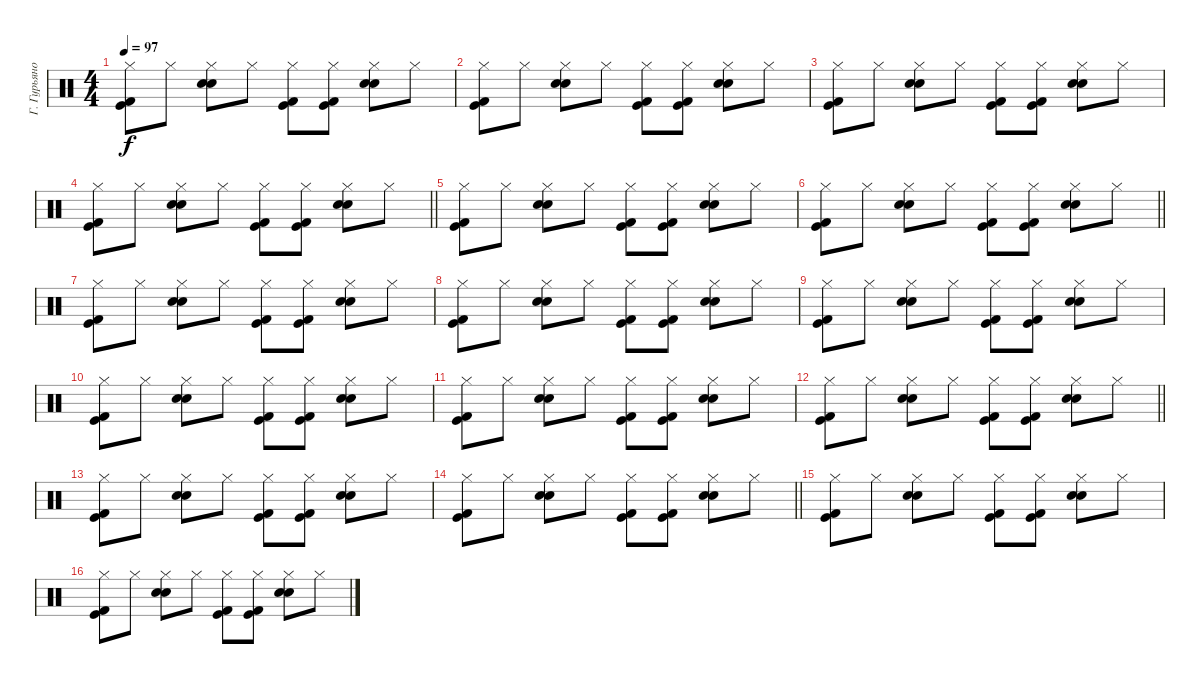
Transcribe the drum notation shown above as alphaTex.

\track ("Г. Гурьянов" "Г. Гурьяно") {instrument percussion}
\staff {score}
\articulation defaults
\ts (4 4)
\tempo 97
\clef neutral
\ks c
("Kick (hit) 2" "Kick (hit)" "Hi-Hat (closed)").8{dy f} "Hi-Hat (closed)".8 ("Electric Snare (hit)" "Snare (hit) 2" "Hi-Hat (closed)").8 "Hi-Hat (closed)".8 ("Kick (hit) 2" "Kick (hit)" "Hi-Hat (closed)").8 ("Kick (hit) 2" "Kick (hit)" "Hi-Hat (closed)").8 ("Electric Snare (hit)" "Snare (hit) 2" "Hi-Hat (closed)").8 "Hi-Hat (closed)".8 |
("Kick (hit) 2" "Kick (hit)" "Hi-Hat (closed)").8 "Hi-Hat (closed)".8 ("Electric Snare (hit)" "Snare (hit) 2" "Hi-Hat (closed)").8 "Hi-Hat (closed)".8 ("Kick (hit) 2" "Kick (hit)" "Hi-Hat (closed)").8 ("Kick (hit) 2" "Kick (hit)" "Hi-Hat (closed)").8 ("Electric Snare (hit)" "Snare (hit) 2" "Hi-Hat (closed)").8 "Hi-Hat (closed)".8 |
("Kick (hit) 2" "Kick (hit)" "Hi-Hat (closed)").8 "Hi-Hat (closed)".8 ("Electric Snare (hit)" "Snare (hit) 2" "Hi-Hat (closed)").8 "Hi-Hat (closed)".8 ("Kick (hit) 2" "Kick (hit)" "Hi-Hat (closed)").8 ("Kick (hit) 2" "Kick (hit)" "Hi-Hat (closed)").8 ("Electric Snare (hit)" "Snare (hit) 2" "Hi-Hat (closed)").8 "Hi-Hat (closed)".8 |
\barLineRight lightlight
("Kick (hit) 2" "Kick (hit)" "Hi-Hat (closed)").8 "Hi-Hat (closed)".8 ("Electric Snare (hit)" "Snare (hit) 2" "Hi-Hat (closed)").8 "Hi-Hat (closed)".8 ("Kick (hit) 2" "Kick (hit)" "Hi-Hat (closed)").8 ("Kick (hit) 2" "Kick (hit)" "Hi-Hat (closed)").8 ("Electric Snare (hit)" "Snare (hit) 2" "Hi-Hat (closed)").8 "Hi-Hat (closed)".8 |
("Kick (hit) 2" "Kick (hit)" "Hi-Hat (closed)").8 "Hi-Hat (closed)".8 ("Electric Snare (hit)" "Snare (hit) 2" "Hi-Hat (closed)").8 "Hi-Hat (closed)".8 ("Kick (hit) 2" "Kick (hit)" "Hi-Hat (closed)").8 ("Kick (hit) 2" "Kick (hit)" "Hi-Hat (closed)").8 ("Electric Snare (hit)" "Snare (hit) 2" "Hi-Hat (closed)").8 "Hi-Hat (closed)".8 |
\barLineRight lightlight
("Kick (hit) 2" "Kick (hit)" "Hi-Hat (closed)").8 "Hi-Hat (closed)".8 ("Electric Snare (hit)" "Snare (hit) 2" "Hi-Hat (closed)").8 "Hi-Hat (closed)".8 ("Kick (hit) 2" "Kick (hit)" "Hi-Hat (closed)").8 ("Kick (hit) 2" "Kick (hit)" "Hi-Hat (closed)").8 ("Electric Snare (hit)" "Snare (hit) 2" "Hi-Hat (closed)").8 "Hi-Hat (closed)".8 |
("Kick (hit) 2" "Kick (hit)" "Hi-Hat (closed)").8 "Hi-Hat (closed)".8 ("Electric Snare (hit)" "Snare (hit) 2" "Hi-Hat (closed)").8 "Hi-Hat (closed)".8 ("Kick (hit) 2" "Kick (hit)" "Hi-Hat (closed)").8 ("Kick (hit) 2" "Kick (hit)" "Hi-Hat (closed)").8 ("Electric Snare (hit)" "Snare (hit) 2" "Hi-Hat (closed)").8 "Hi-Hat (closed)".8 |
("Kick (hit) 2" "Kick (hit)" "Hi-Hat (closed)").8 "Hi-Hat (closed)".8 ("Electric Snare (hit)" "Snare (hit) 2" "Hi-Hat (closed)").8 "Hi-Hat (closed)".8 ("Kick (hit) 2" "Kick (hit)" "Hi-Hat (closed)").8 ("Kick (hit) 2" "Kick (hit)" "Hi-Hat (closed)").8 ("Electric Snare (hit)" "Snare (hit) 2" "Hi-Hat (closed)").8 "Hi-Hat (closed)".8 |
("Kick (hit) 2" "Kick (hit)" "Hi-Hat (closed)").8 "Hi-Hat (closed)".8 ("Electric Snare (hit)" "Snare (hit) 2" "Hi-Hat (closed)").8 "Hi-Hat (closed)".8 ("Kick (hit) 2" "Kick (hit)" "Hi-Hat (closed)").8 ("Kick (hit) 2" "Kick (hit)" "Hi-Hat (closed)").8 ("Electric Snare (hit)" "Snare (hit) 2" "Hi-Hat (closed)").8 "Hi-Hat (closed)".8 |
("Kick (hit) 2" "Kick (hit)" "Hi-Hat (closed)").8 "Hi-Hat (closed)".8 ("Electric Snare (hit)" "Snare (hit) 2" "Hi-Hat (closed)").8 "Hi-Hat (closed)".8 ("Kick (hit) 2" "Kick (hit)" "Hi-Hat (closed)").8 ("Kick (hit) 2" "Kick (hit)" "Hi-Hat (closed)").8 ("Electric Snare (hit)" "Snare (hit) 2" "Hi-Hat (closed)").8 "Hi-Hat (closed)".8 |
("Kick (hit) 2" "Kick (hit)" "Hi-Hat (closed)").8 "Hi-Hat (closed)".8 ("Electric Snare (hit)" "Snare (hit) 2" "Hi-Hat (closed)").8 "Hi-Hat (closed)".8 ("Kick (hit) 2" "Kick (hit)" "Hi-Hat (closed)").8 ("Kick (hit) 2" "Kick (hit)" "Hi-Hat (closed)").8 ("Electric Snare (hit)" "Snare (hit) 2" "Hi-Hat (closed)").8 "Hi-Hat (closed)".8 |
\barLineRight lightlight
("Kick (hit) 2" "Kick (hit)" "Hi-Hat (closed)").8 "Hi-Hat (closed)".8 ("Electric Snare (hit)" "Snare (hit) 2" "Hi-Hat (closed)").8 "Hi-Hat (closed)".8 ("Kick (hit) 2" "Kick (hit)" "Hi-Hat (closed)").8 ("Kick (hit) 2" "Kick (hit)" "Hi-Hat (closed)").8 ("Electric Snare (hit)" "Snare (hit) 2" "Hi-Hat (closed)").8 "Hi-Hat (closed)".8 |
("Kick (hit) 2" "Kick (hit)" "Hi-Hat (closed)").8 "Hi-Hat (closed)".8 ("Electric Snare (hit)" "Snare (hit) 2" "Hi-Hat (closed)").8 "Hi-Hat (closed)".8 ("Kick (hit) 2" "Kick (hit)" "Hi-Hat (closed)").8 ("Kick (hit) 2" "Kick (hit)" "Hi-Hat (closed)").8 ("Electric Snare (hit)" "Snare (hit) 2" "Hi-Hat (closed)").8 "Hi-Hat (closed)".8 |
\barLineRight lightlight
("Kick (hit) 2" "Kick (hit)" "Hi-Hat (closed)").8 "Hi-Hat (closed)".8 ("Electric Snare (hit)" "Snare (hit) 2" "Hi-Hat (closed)").8 "Hi-Hat (closed)".8 ("Kick (hit) 2" "Kick (hit)" "Hi-Hat (closed)").8 ("Kick (hit) 2" "Kick (hit)" "Hi-Hat (closed)").8 ("Electric Snare (hit)" "Snare (hit) 2" "Hi-Hat (closed)").8 "Hi-Hat (closed)".8 |
("Kick (hit) 2" "Kick (hit)" "Hi-Hat (closed)").8 "Hi-Hat (closed)".8 ("Electric Snare (hit)" "Snare (hit) 2" "Hi-Hat (closed)").8 "Hi-Hat (closed)".8 ("Kick (hit) 2" "Kick (hit)" "Hi-Hat (closed)").8 ("Kick (hit) 2" "Kick (hit)" "Hi-Hat (closed)").8 ("Electric Snare (hit)" "Snare (hit) 2" "Hi-Hat (closed)").8 "Hi-Hat (closed)".8 |
("Kick (hit) 2" "Kick (hit)" "Hi-Hat (closed)").8 "Hi-Hat (closed)".8 ("Electric Snare (hit)" "Snare (hit) 2" "Hi-Hat (closed)").8 "Hi-Hat (closed)".8 ("Kick (hit) 2" "Kick (hit)" "Hi-Hat (closed)").8 ("Kick (hit) 2" "Kick (hit)" "Hi-Hat (closed)").8 ("Electric Snare (hit)" "Snare (hit) 2" "Hi-Hat (closed)").8 "Hi-Hat (closed)".8
